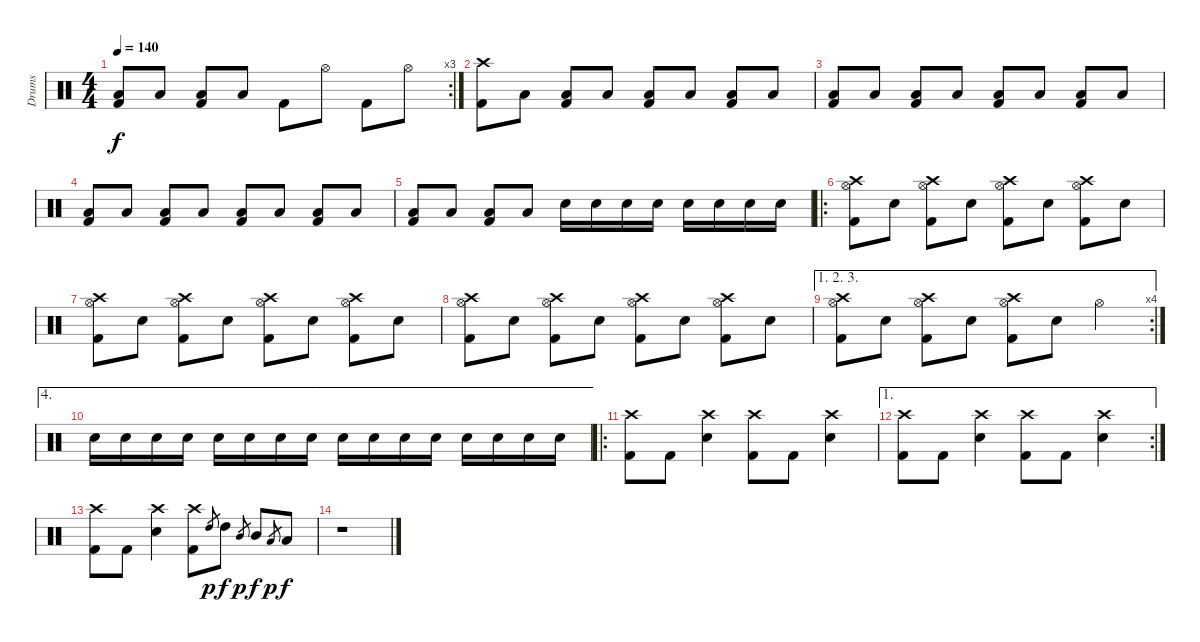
\track ("Drums" "Drums") {instrument percussion}
\staff {score}
\articulation defaults
\rc 3
\ts (4 4)
\tempo 140
\clef neutral
\ks c
("Low Tom (hit)" "Kick (hit) 2").8{dy f} "Low Tom (hit)".8 ("Low Tom (hit)" "Kick (hit) 2").8 "Low Tom (hit)".8 "Kick (hit) 2".8 "Hi-Hat (open)".8 "Kick (hit) 2".8 "Hi-Hat (open)".8 |
("Crash high (hit)" "Kick (hit) 2").8 "Low Tom (hit)".8 ("Low Tom (hit)" "Kick (hit) 2").8 "Low Tom (hit)".8 ("Low Tom (hit)" "Kick (hit) 2").8 "Low Tom (hit)".8 ("Low Tom (hit)" "Kick (hit) 2").8 "Low Tom (hit)".8 |
("Low Tom (hit)" "Kick (hit) 2").8 "Low Tom (hit)".8 ("Low Tom (hit)" "Kick (hit) 2").8 "Low Tom (hit)".8 ("Low Tom (hit)" "Kick (hit) 2").8 "Low Tom (hit)".8 ("Low Tom (hit)" "Kick (hit) 2").8 "Low Tom (hit)".8 |
("Low Tom (hit)" "Kick (hit) 2").8 "Low Tom (hit)".8 ("Low Tom (hit)" "Kick (hit) 2").8 "Low Tom (hit)".8 ("Low Tom (hit)" "Kick (hit) 2").8 "Low Tom (hit)".8 ("Low Tom (hit)" "Kick (hit) 2").8 "Low Tom (hit)".8 |
("Low Tom (hit)" "Kick (hit) 2").8 "Low Tom (hit)".8 ("Low Tom (hit)" "Kick (hit) 2").8 "Low Tom (hit)".8 "Snare (hit) 2".16 "Snare (hit) 2".16 "Snare (hit) 2".16 "Snare (hit) 2".16 "Snare (hit) 2".16 "Snare (hit) 2".16 "Snare (hit) 2".16 "Snare (hit) 2".16 |
\ro
("Crash high (hit)" "Hi-Hat (open)" "Kick (hit) 2").8 "Snare (hit) 2".8 ("Crash high (hit)" "Hi-Hat (open)" "Kick (hit) 2").8 "Snare (hit) 2".8 ("Crash high (hit)" "Hi-Hat (open)" "Kick (hit) 2").8 "Snare (hit) 2".8 ("Crash high (hit)" "Hi-Hat (open)" "Kick (hit) 2").8 "Snare (hit) 2".8 |
("Crash high (hit)" "Hi-Hat (open)" "Kick (hit) 2").8 "Snare (hit) 2".8 ("Crash high (hit)" "Hi-Hat (open)" "Kick (hit) 2").8 "Snare (hit) 2".8 ("Crash high (hit)" "Hi-Hat (open)" "Kick (hit) 2").8 "Snare (hit) 2".8 ("Crash high (hit)" "Hi-Hat (open)" "Kick (hit) 2").8 "Snare (hit) 2".8 |
("Crash high (hit)" "Hi-Hat (open)" "Kick (hit) 2").8 "Snare (hit) 2".8 ("Crash high (hit)" "Hi-Hat (open)" "Kick (hit) 2").8 "Snare (hit) 2".8 ("Crash high (hit)" "Hi-Hat (open)" "Kick (hit) 2").8 "Snare (hit) 2".8 ("Crash high (hit)" "Hi-Hat (open)" "Kick (hit) 2").8 "Snare (hit) 2".8 |
\ae (1 2 3)
\rc 4
("Crash high (hit)" "Hi-Hat (open)" "Kick (hit) 2").8 "Snare (hit) 2".8 ("Crash high (hit)" "Hi-Hat (open)" "Kick (hit) 2").8 "Snare (hit) 2".8 ("Crash high (hit)" "Hi-Hat (open)" "Kick (hit) 2").8 "Snare (hit) 2".8 "Hi-Hat (open)".4 |
\ae 4 "Snare (hit) 2".16 "Snare (hit) 2".16 "Snare (hit) 2".16 "Snare (hit) 2".16 "Snare (hit) 2".16 "Snare (hit) 2".16 "Snare (hit) 2".16 "Snare (hit) 2".16 "Snare (hit) 2".16 "Snare (hit) 2".16 "Snare (hit) 2".16 "Snare (hit) 2".16 "Snare (hit) 2".16 "Snare (hit) 2".16 "Snare (hit) 2".16 "Snare (hit) 2".16
|
\ro
("Crash high (hit)" "Kick (hit) 2").8 "Kick (hit) 2".8 ("Crash high (hit)" "Snare (hit) 2").4 ("Crash high (hit)" "Kick (hit) 2").8 "Kick (hit) 2".8 ("Crash high (hit)" "Snare (hit) 2").4 |
\ae 1
\rc 2
("Crash high (hit)" "Kick (hit) 2").8 "Kick (hit) 2".8 ("Crash high (hit)" "Snare (hit) 2").4 ("Crash high (hit)" "Kick (hit) 2").8 "Kick (hit) 2".8 ("Crash high (hit)" "Snare (hit) 2").4 |
("Crash high (hit)" "Kick (hit) 2").8 "Kick (hit) 2".8 ("Crash high (hit)" "Snare (hit) 2").4 ("Crash high (hit)" "Kick (hit) 2").8 "High Tom (hit)".8{gr dy p} "High Tom (hit)".8{dy f} "Mid Tom (hit)".8{gr dy p} "Mid Tom (hit)".8{dy f} "Low Tom (hit)".8{gr dy p} "Low Tom (hit)".8{dy f} |
r.1
